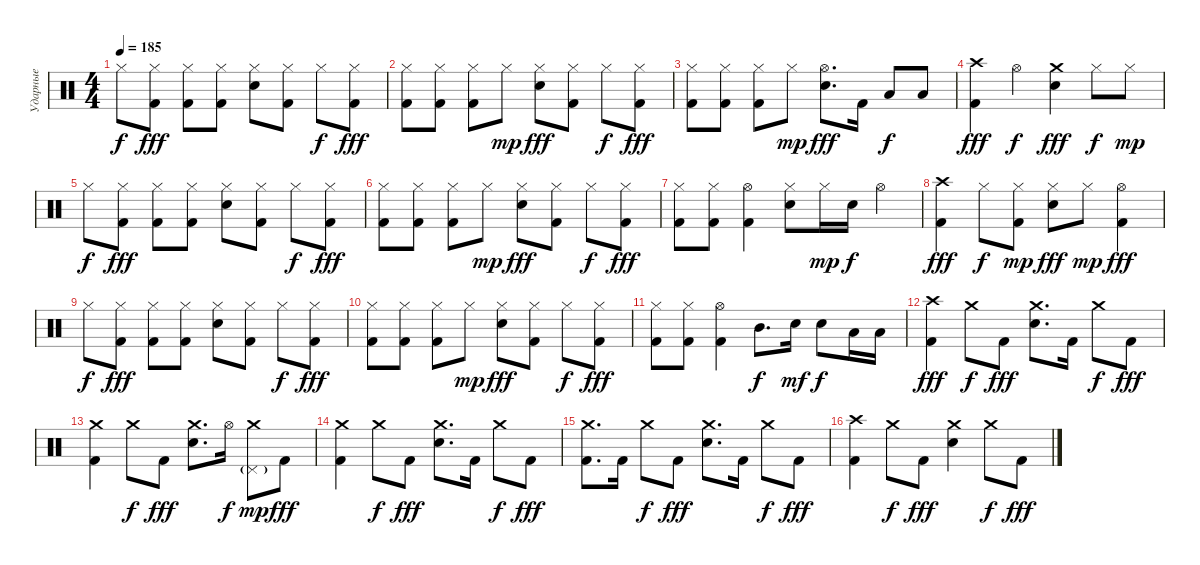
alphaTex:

\track ("Ударные" "Ударные") {instrument percussion}
\staff {score}
\articulation defaults
\ts (4 4)
\tempo 185
\clef neutral
\ks c "Hi-Hat (closed)".8{dy f}
("Hi-Hat (closed)" "Kick (hit) 2").8{dy fff} ("Hi-Hat (closed)" "Kick (hit) 2").8 ("Hi-Hat (closed)" "Kick (hit) 2").8 ("Hi-Hat (closed)" "Electric Snare (hit)").8 ("Hi-Hat (closed)" "Kick (hit) 2").8 "Hi-Hat (closed)".8{dy f} ("Hi-Hat (closed)" "Kick (hit) 2").8{dy fff} |
("Hi-Hat (closed)" "Kick (hit) 2").8 ("Hi-Hat (closed)" "Kick (hit) 2").8 ("Hi-Hat (closed)" "Kick (hit) 2").8 "Hi-Hat (closed)".8{dy mp} ("Hi-Hat (closed)" "Electric Snare (hit)").8{dy fff} ("Hi-Hat (closed)" "Kick (hit) 2").8 "Hi-Hat (closed)".8{dy f} ("Hi-Hat (closed)" "Kick (hit) 2").8{dy fff} |
("Hi-Hat (closed)" "Kick (hit) 2").8 ("Hi-Hat (closed)" "Kick (hit) 2").8 ("Hi-Hat (closed)" "Kick (hit) 2").8 "Hi-Hat (closed)".8{dy mp} ("Hi-Hat (open)" "Electric Snare (hit)").8{d dy fff} "Kick (hit) 2".16 "Low Tom (hit)".8{dy f} "Low Floor Tom (hit)".8 |
("Crash high (hit)" "Kick (hit) 2").4{dy fff} "Hi-Hat (open)".4{dy f} ("Crash medium (hit)" "Electric Snare (hit)").4{dy fff} "Hi-Hat (closed)".8{dy f} "Hi-Hat (closed)".8{dy mp} |
"Hi-Hat (closed)".8{dy f} ("Hi-Hat (closed)" "Kick (hit) 2").8{dy fff} ("Hi-Hat (closed)" "Kick (hit) 2").8 ("Hi-Hat (closed)" "Kick (hit) 2").8 ("Hi-Hat (closed)" "Electric Snare (hit)").8 ("Hi-Hat (closed)" "Kick (hit) 2").8 "Hi-Hat (closed)".8{dy f} ("Hi-Hat (closed)" "Kick (hit) 2").8{dy fff} |
("Hi-Hat (closed)" "Kick (hit) 2").8 ("Hi-Hat (closed)" "Kick (hit) 2").8 ("Hi-Hat (closed)" "Kick (hit) 2").8 "Hi-Hat (closed)".8{dy mp} ("Hi-Hat (closed)" "Electric Snare (hit)").8{dy fff} ("Hi-Hat (closed)" "Kick (hit) 2").8 "Hi-Hat (closed)".8{dy f} ("Hi-Hat (closed)" "Kick (hit) 2").8{dy fff} |
("Hi-Hat (closed)" "Kick (hit) 2").8 ("Hi-Hat (closed)" "Kick (hit) 2").8 ("Hi-Hat (open)" "Kick (hit) 2").4 ("Hi-Hat (closed)" "Electric Snare (hit)").8 "Hi-Hat (closed)".16{dy mp} "Electric Snare (hit)".16{dy f} "Hi-Hat (open)".4 |
("Crash high (hit)" "Kick (hit) 2").4{dy fff} "Hi-Hat (closed)".8{dy f} ("Hi-Hat (closed)" "Kick (hit) 2").8{dy mp} ("Hi-Hat (closed)" "Electric Snare (hit)").8{dy fff} "Hi-Hat (closed)".8{dy mp} ("Hi-Hat (open)" "Kick (hit) 2").4{dy fff} |
"Hi-Hat (closed)".8{dy f} ("Hi-Hat (closed)" "Kick (hit) 2").8{dy fff} ("Hi-Hat (closed)" "Kick (hit) 2").8 ("Hi-Hat (closed)" "Kick (hit) 2").8 ("Hi-Hat (closed)" "Electric Snare (hit)").8 ("Hi-Hat (closed)" "Kick (hit) 2").8 "Hi-Hat (closed)".8{dy f} ("Hi-Hat (closed)" "Kick (hit) 2").8{dy fff} |
("Hi-Hat (closed)" "Kick (hit) 2").8 ("Hi-Hat (closed)" "Kick (hit) 2").8 ("Hi-Hat (closed)" "Kick (hit) 2").8 "Hi-Hat (closed)".8{dy mp} ("Hi-Hat (closed)" "Electric Snare (hit)").8{dy fff} ("Hi-Hat (closed)" "Kick (hit) 2").8 "Hi-Hat (closed)".8{dy f} ("Hi-Hat (closed)" "Kick (hit) 2").8{dy fff} |
("Hi-Hat (closed)" "Kick (hit) 2").8 ("Hi-Hat (closed)" "Kick (hit) 2").8 ("Hi-Hat (open)" "Kick (hit) 2").4 "Mid Tom (hit)".8{d dy f} "Electric Snare (hit)".16{dy mf} "Electric Snare (hit)".8{dy f} "Low Floor Tom (hit)".16 "Low Floor Tom (hit)".16 |
("Crash high (hit)" "Kick (hit) 2").4{dy fff} "Crash medium (hit)".8{dy f} "Kick (hit) 2".8{dy fff} ("Crash medium (hit)" "Electric Snare (hit)").8{d} "Kick (hit) 2".16 "Crash medium (hit)".8{dy f} "Kick (hit) 2".8{dy fff} |
("Crash medium (hit)" "Kick (hit) 2").4 "Crash medium (hit)".8{dy f} "Kick (hit) 2".8{dy fff} ("Crash medium (hit)" "Electric Snare (hit)").8{d} "Hi-Hat (open)".16{dy f} ("Crash medium (hit)" "Pedal Hi-Hat (hit)"{g}).8{dy mp} "Kick (hit) 2".8{dy fff} |
("Crash medium (hit)" "Kick (hit) 2").4 "Crash medium (hit)".8{dy f} "Kick (hit) 2".8{dy fff} ("Crash medium (hit)" "Electric Snare (hit)").8{d} "Kick (hit) 2".16 "Crash medium (hit)".8{dy f} "Kick (hit) 2".8{dy fff} |
("Crash medium (hit)" "Kick (hit) 2").8{d} "Kick (hit) 2".16 "Crash medium (hit)".8{dy f} "Kick (hit) 2".8{dy fff} ("Crash medium (hit)" "Electric Snare (hit)").8{d} "Kick (hit) 2".16 "Crash medium (hit)".8{dy f} "Kick (hit) 2".8{dy fff} |
("Crash high (hit)" "Kick (hit) 2").4 "Crash medium (hit)".8{dy f} "Kick (hit) 2".8{dy fff} ("Crash medium (hit)" "Electric Snare (hit)").4 "Crash medium (hit)".8{dy f} "Kick (hit) 2".8{dy fff}
